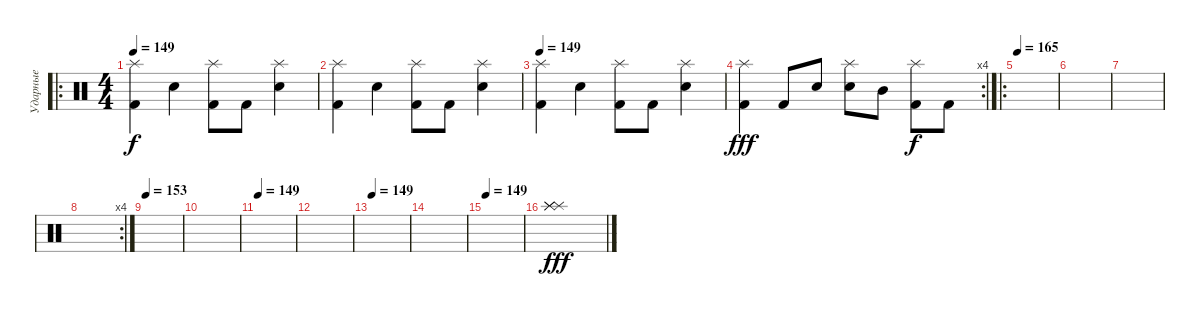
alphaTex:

\track ("Ударные" "Ударные") {instrument percussion}
\staff {score}
\articulation defaults
\ro
\ts (4 4)
\tempo 149
\clef neutral
\ks c
("Kick (hit) 2" "Splash (hit)").4{dy f} "Snare (hit) 2".4 ("Kick (hit) 2" "Splash (hit)").8 "Kick (hit) 2".8 ("Snare (hit) 2" "Splash (hit)").4 |
("Kick (hit) 2" "Splash (hit)").4 "Snare (hit) 2".4 ("Kick (hit) 2" "Splash (hit)").8 "Kick (hit) 2".8 ("Snare (hit) 2" "Splash (hit)").4 |
\tempo 149
("Kick (hit) 2" "Splash (hit)").4 "Snare (hit) 2".4 ("Kick (hit) 2" "Splash (hit)").8 "Kick (hit) 2".8 ("Snare (hit) 2" "Splash (hit)").4 |
\rc 4
("Kick (hit) 2" "Splash (hit)").4{dy fff} "Kick (hit) 2".8 "Snare (hit) 2".8 ("Snare (hit) 2" "Splash (hit)").8 "Mid Tom (hit)".8 ("Kick (hit) 2" "Splash (hit)").8{dy f} "Kick (hit) 2".8 |
\ro
\tempo 165
|
|
|
\rc 4
|
\tempo 153
|
|
\tempo 149
|
|
\tempo 149
|
|
\tempo 149
|
("Splash (hit)" "Splash (hit)" "Splash (hit)").1{dy fff}
